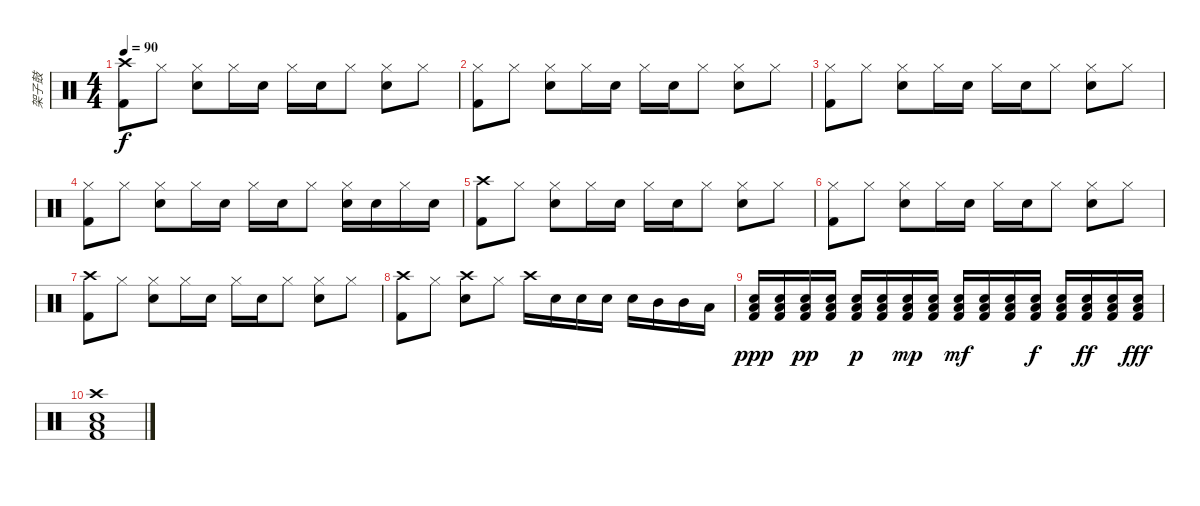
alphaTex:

\track ("架子鼓" "架子鼓") {instrument percussion}
\staff {score}
\articulation defaults
\ts (4 4)
\tempo 90
\clef neutral
\ks c
("Crash high (hit)" "Kick (hit) 2").8{dy f} "Hi-Hat (closed)".8 ("Hi-Hat (closed)" "Snare (hit) 2").8 "Hi-Hat (closed)".16 "Snare (hit) 2".16 "Hi-Hat (closed)".16 "Snare (hit) 2".16 "Hi-Hat (closed)".8 ("Hi-Hat (closed)" "Snare (hit) 2").8 "Hi-Hat (closed)".8 |
("Hi-Hat (closed)" "Kick (hit) 2").8 "Hi-Hat (closed)".8 ("Hi-Hat (closed)" "Snare (hit) 2").8 "Hi-Hat (closed)".16 "Snare (hit) 2".16 "Hi-Hat (closed)".16 "Snare (hit) 2".16 "Hi-Hat (closed)".8 ("Hi-Hat (closed)" "Snare (hit) 2").8 "Hi-Hat (closed)".8 |
("Hi-Hat (closed)" "Kick (hit) 2").8 "Hi-Hat (closed)".8 ("Hi-Hat (closed)" "Snare (hit) 2").8 "Hi-Hat (closed)".16 "Snare (hit) 2".16 "Hi-Hat (closed)".16 "Snare (hit) 2".16 "Hi-Hat (closed)".8 ("Hi-Hat (closed)" "Snare (hit) 2").8 "Hi-Hat (closed)".8 |
("Hi-Hat (closed)" "Kick (hit) 2").8 "Hi-Hat (closed)".8 ("Hi-Hat (closed)" "Snare (hit) 2").8 "Hi-Hat (closed)".16 "Snare (hit) 2".16 "Hi-Hat (closed)".16 "Snare (hit) 2".16 "Hi-Hat (closed)".8 ("Hi-Hat (closed)" "Snare (hit) 2").16 "Snare (hit) 2".16 "Hi-Hat (closed)".16 "Snare (hit) 2".16 |
("Crash high (hit)" "Kick (hit) 2").8 "Hi-Hat (closed)".8 ("Hi-Hat (closed)" "Snare (hit) 2").8 "Hi-Hat (closed)".16 "Snare (hit) 2".16 "Hi-Hat (closed)".16 "Snare (hit) 2".16 "Hi-Hat (closed)".8 ("Hi-Hat (closed)" "Snare (hit) 2").8 "Hi-Hat (closed)".8 |
("Hi-Hat (closed)" "Kick (hit) 2").8 "Hi-Hat (closed)".8 ("Hi-Hat (closed)" "Snare (hit) 2").8 "Hi-Hat (closed)".16 "Snare (hit) 2".16 "Hi-Hat (closed)".16 "Snare (hit) 2".16 "Hi-Hat (closed)".8 ("Hi-Hat (closed)" "Snare (hit) 2").8 "Hi-Hat (closed)".8 |
("Crash high (hit)" "Kick (hit) 2").8 "Hi-Hat (closed)".8 ("Hi-Hat (closed)" "Snare (hit) 2").8 "Hi-Hat (closed)".16 "Snare (hit) 2".16 "Hi-Hat (closed)".16 "Snare (hit) 2".16 "Hi-Hat (closed)".8 ("Hi-Hat (closed)" "Snare (hit) 2").8 "Hi-Hat (closed)".8 |
("Crash high (hit)" "Kick (hit) 2").8 "Hi-Hat (closed)".8 ("Crash high (hit)" "Snare (hit) 2").8 "Hi-Hat (closed)".8 "Crash high (hit)".16 "Snare (hit) 2".16 "Snare (hit) 2".16 "Snare (hit) 2".16 "Snare (hit) 2".16 "Mid Tom (hit)".16 "Mid Tom (hit)".16 "Low Tom (hit)".16 |
("Snare (hit) 2" "Low Floor Tom (hit)" "Kick (hit) 2").16{dy ppp} ("Snare (hit) 2" "Low Floor Tom (hit)" "Kick (hit) 2").16 ("Snare (hit) 2" "Low Floor Tom (hit)" "Kick (hit) 2").16{dy pp} ("Snare (hit) 2" "Low Floor Tom (hit)" "Kick (hit) 2").16 ("Snare (hit) 2" "Low Floor Tom (hit)" "Kick (hit) 2").16{dy p} ("Snare (hit) 2" "Low Floor Tom (hit)" "Kick (hit) 2").16 ("Snare (hit) 2" "Low Floor Tom (hit)" "Kick (hit) 2").16{dy mp} ("Snare (hit) 2" "Low Floor Tom (hit)" "Kick (hit) 2").16 ("Snare (hit) 2" "Low Floor Tom (hit)" "Kick (hit) 2").16{dy mf} ("Snare (hit) 2" "Low Floor Tom (hit)" "Kick (hit) 2").16 ("Snare (hit) 2" "Low Floor Tom (hit)" "Kick (hit) 2").16 ("Snare (hit) 2" "Low Floor Tom (hit)" "Kick (hit) 2").16{dy f} ("Snare (hit) 2" "Low Floor Tom (hit)" "Kick (hit) 2").16 ("Snare (hit) 2" "Low Floor Tom (hit)" "Kick (hit) 2").16{dy ff} ("Snare (hit) 2" "Low Floor Tom (hit)" "Kick (hit) 2").16 ("Snare (hit) 2" "Low Floor Tom (hit)" "Kick (hit) 2").16{dy fff} |
("Crash high (hit)" "Snare (hit) 2" "Low Floor Tom (hit)" "Kick (hit) 2").1
